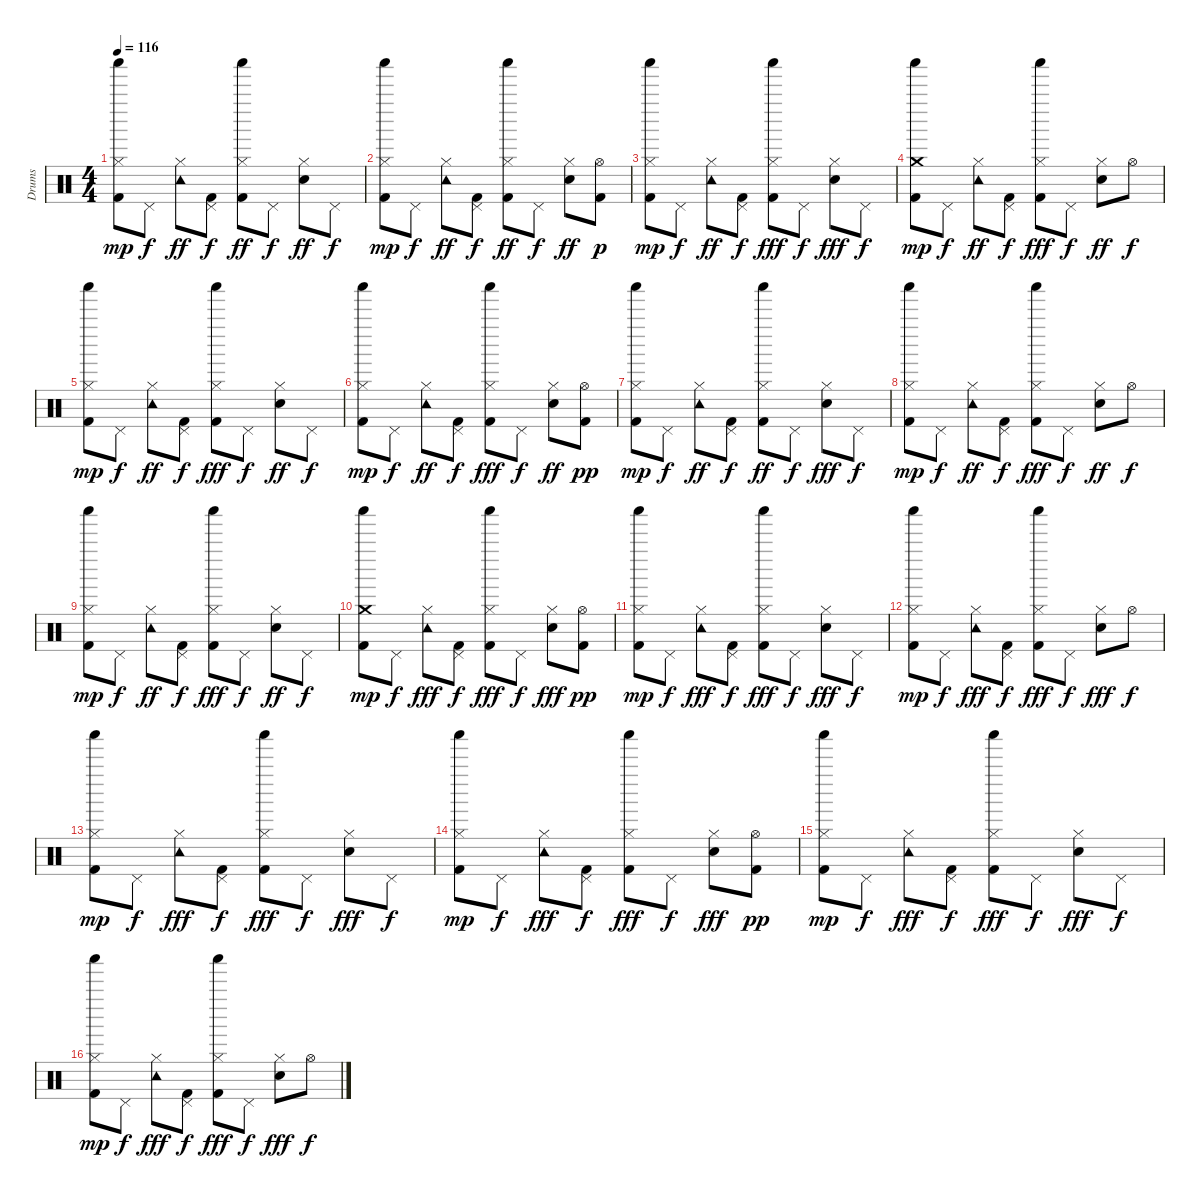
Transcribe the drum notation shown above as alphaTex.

\track ("Drums" "Drums") {instrument percussion}
\staff {score}
\articulation defaults
\ts (4 4)
\tempo 116
\clef neutral
\ks c
("Kick (hit) 2" "Hi-Hat (closed)" "Shaker (hit)").8{dy mp} "Pedal Hi-Hat (hit)".8{dy f} ("Hi-Hat (closed)" "Tambourine (hit)").8{dy ff} ("Pedal Hi-Hat (hit)" "Kick (hit) 2").8{dy f} ("Kick (hit) 2" "Shaker (hit)" "Hi-Hat (closed)").8{dy ff} "Pedal Hi-Hat (hit)".8{dy f} ("Hi-Hat (closed)" "Snare (hit) 2").8{dy ff} "Pedal Hi-Hat (hit)".8{dy f} |
("Kick (hit) 2" "Hi-Hat (closed)" "Shaker (hit)").8{dy mp} "Pedal Hi-Hat (hit)".8{dy f} ("Hi-Hat (closed)" "Tambourine (hit)").8{dy ff} ("Pedal Hi-Hat (hit)" "Kick (hit) 2").8{dy f} ("Kick (hit) 2" "Shaker (hit)" "Hi-Hat (closed)").8{dy ff} "Pedal Hi-Hat (hit)".8{dy f} ("Hi-Hat (closed)" "Snare (hit) 2").8{dy ff} ("Kick (hit) 2" "Hi-Hat (open)").8{dy p} |
("Kick (hit) 2" "Hi-Hat (closed)" "Shaker (hit)").8{dy mp} "Pedal Hi-Hat (hit)".8{dy f} ("Hi-Hat (closed)" "Tambourine (hit)").8{dy ff} ("Pedal Hi-Hat (hit)" "Kick (hit) 2").8{dy f} ("Kick (hit) 2" "Shaker (hit)" "Hi-Hat (closed)").8{dy fff} "Pedal Hi-Hat (hit)".8{dy f} ("Snare (hit) 2" "Hi-Hat (closed)").8{dy fff} "Pedal Hi-Hat (hit)".8{dy f} |
("Kick (hit) 2" "Crash medium (hit)" "Shaker (hit)").8{dy mp} "Pedal Hi-Hat (hit)".8{dy f} ("Hi-Hat (closed)" "Tambourine (hit)").8{dy ff} ("Pedal Hi-Hat (hit)" "Kick (hit) 2").8{dy f} ("Kick (hit) 2" "Shaker (hit)" "Hi-Hat (closed)").8{dy fff} "Pedal Hi-Hat (hit)".8{dy f} ("Snare (hit) 2" "Hi-Hat (closed)").8{dy ff} "Hi-Hat (open)".8{dy f} |
("Kick (hit) 2" "Hi-Hat (closed)" "Shaker (hit)").8{dy mp} "Pedal Hi-Hat (hit)".8{dy f} ("Hi-Hat (closed)" "Tambourine (hit)").8{dy ff} ("Pedal Hi-Hat (hit)" "Kick (hit) 2").8{dy f} ("Kick (hit) 2" "Shaker (hit)" "Hi-Hat (closed)").8{dy fff} "Pedal Hi-Hat (hit)".8{dy f} ("Hi-Hat (closed)" "Snare (hit) 2").8{dy ff} "Pedal Hi-Hat (hit)".8{dy f} |
("Kick (hit) 2" "Hi-Hat (closed)" "Shaker (hit)").8{dy mp} "Pedal Hi-Hat (hit)".8{dy f} ("Hi-Hat (closed)" "Tambourine (hit)").8{dy ff} ("Pedal Hi-Hat (hit)" "Kick (hit) 2").8{dy f} ("Kick (hit) 2" "Shaker (hit)" "Hi-Hat (closed)").8{dy fff} "Pedal Hi-Hat (hit)".8{dy f} ("Hi-Hat (closed)" "Snare (hit) 2").8{dy ff} ("Kick (hit) 2" "Hi-Hat (open)").8{dy pp} |
("Kick (hit) 2" "Hi-Hat (closed)" "Shaker (hit)").8{dy mp} "Pedal Hi-Hat (hit)".8{dy f} ("Hi-Hat (closed)" "Tambourine (hit)").8{dy ff} ("Pedal Hi-Hat (hit)" "Kick (hit) 2").8{dy f} ("Kick (hit) 2" "Shaker (hit)" "Hi-Hat (closed)").8{dy ff} "Pedal Hi-Hat (hit)".8{dy f} ("Snare (hit) 2" "Hi-Hat (closed)").8{dy fff} "Pedal Hi-Hat (hit)".8{dy f} |
("Kick (hit) 2" "Hi-Hat (closed)" "Shaker (hit)").8{dy mp} "Pedal Hi-Hat (hit)".8{dy f} ("Hi-Hat (closed)" "Tambourine (hit)").8{dy ff} ("Pedal Hi-Hat (hit)" "Kick (hit) 2").8{dy f} ("Kick (hit) 2" "Shaker (hit)" "Hi-Hat (closed)").8{dy fff} "Pedal Hi-Hat (hit)".8{dy f} ("Snare (hit) 2" "Hi-Hat (closed)").8{dy ff} "Hi-Hat (open)".8{dy f} |
("Kick (hit) 2" "Hi-Hat (closed)" "Shaker (hit)").8{dy mp} "Pedal Hi-Hat (hit)".8{dy f} ("Hi-Hat (closed)" "Tambourine (hit)").8{dy ff} ("Pedal Hi-Hat (hit)" "Kick (hit) 2").8{dy f} ("Kick (hit) 2" "Shaker (hit)" "Hi-Hat (closed)").8{dy fff} "Pedal Hi-Hat (hit)".8{dy f} ("Hi-Hat (closed)" "Snare (hit) 2").8{dy ff} "Pedal Hi-Hat (hit)".8{dy f} |
("Kick (hit) 2" "Crash medium (hit)" "Shaker (hit)").8{dy mp} "Pedal Hi-Hat (hit)".8{dy f} ("Hi-Hat (closed)" "Tambourine (hit)").8{dy fff} ("Pedal Hi-Hat (hit)" "Kick (hit) 2").8{dy f} ("Kick (hit) 2" "Shaker (hit)" "Hi-Hat (closed)").8{dy fff} "Pedal Hi-Hat (hit)".8{dy f} ("Hi-Hat (closed)" "Snare (hit) 2").8{dy fff} ("Kick (hit) 2" "Hi-Hat (open)").8{dy pp} |
("Kick (hit) 2" "Hi-Hat (closed)" "Shaker (hit)").8{dy mp} "Pedal Hi-Hat (hit)".8{dy f} ("Hi-Hat (closed)" "Tambourine (hit)").8{dy fff} ("Pedal Hi-Hat (hit)" "Kick (hit) 2").8{dy f} ("Kick (hit) 2" "Shaker (hit)" "Hi-Hat (closed)").8{dy fff} "Pedal Hi-Hat (hit)".8{dy f} ("Snare (hit) 2" "Hi-Hat (closed)").8{dy fff} "Pedal Hi-Hat (hit)".8{dy f} |
("Kick (hit) 2" "Hi-Hat (closed)" "Shaker (hit)").8{dy mp} "Pedal Hi-Hat (hit)".8{dy f} ("Hi-Hat (closed)" "Tambourine (hit)").8{dy fff} ("Pedal Hi-Hat (hit)" "Kick (hit) 2").8{dy f} ("Kick (hit) 2" "Shaker (hit)" "Hi-Hat (closed)").8{dy fff} "Pedal Hi-Hat (hit)".8{dy f} ("Snare (hit) 2" "Hi-Hat (closed)").8{dy fff} "Hi-Hat (open)".8{dy f} |
("Kick (hit) 2" "Hi-Hat (closed)" "Shaker (hit)").8{dy mp} "Pedal Hi-Hat (hit)".8{dy f} ("Hi-Hat (closed)" "Tambourine (hit)").8{dy fff} ("Pedal Hi-Hat (hit)" "Kick (hit) 2").8{dy f} ("Kick (hit) 2" "Shaker (hit)" "Hi-Hat (closed)").8{dy fff} "Pedal Hi-Hat (hit)".8{dy f} ("Hi-Hat (closed)" "Snare (hit) 2").8{dy fff} "Pedal Hi-Hat (hit)".8{dy f} |
("Kick (hit) 2" "Hi-Hat (closed)" "Shaker (hit)").8{dy mp} "Pedal Hi-Hat (hit)".8{dy f} ("Hi-Hat (closed)" "Tambourine (hit)").8{dy fff} ("Pedal Hi-Hat (hit)" "Kick (hit) 2").8{dy f} ("Kick (hit) 2" "Shaker (hit)" "Hi-Hat (closed)").8{dy fff} "Pedal Hi-Hat (hit)".8{dy f} ("Hi-Hat (closed)" "Snare (hit) 2").8{dy fff} ("Kick (hit) 2" "Hi-Hat (open)").8{dy pp} |
("Kick (hit) 2" "Hi-Hat (closed)" "Shaker (hit)").8{dy mp} "Pedal Hi-Hat (hit)".8{dy f} ("Hi-Hat (closed)" "Tambourine (hit)").8{dy fff} ("Pedal Hi-Hat (hit)" "Kick (hit) 2").8{dy f} ("Kick (hit) 2" "Shaker (hit)" "Hi-Hat (closed)").8{dy fff} "Pedal Hi-Hat (hit)".8{dy f} ("Snare (hit) 2" "Hi-Hat (closed)").8{dy fff} "Pedal Hi-Hat (hit)".8{dy f} |
("Kick (hit) 2" "Hi-Hat (closed)" "Shaker (hit)").8{dy mp} "Pedal Hi-Hat (hit)".8{dy f} ("Hi-Hat (closed)" "Tambourine (hit)").8{dy fff} ("Pedal Hi-Hat (hit)" "Kick (hit) 2").8{dy f} ("Kick (hit) 2" "Shaker (hit)" "Hi-Hat (closed)").8{dy fff} "Pedal Hi-Hat (hit)".8{dy f} ("Snare (hit) 2" "Hi-Hat (closed)").8{dy fff} "Hi-Hat (open)".8{dy f}
